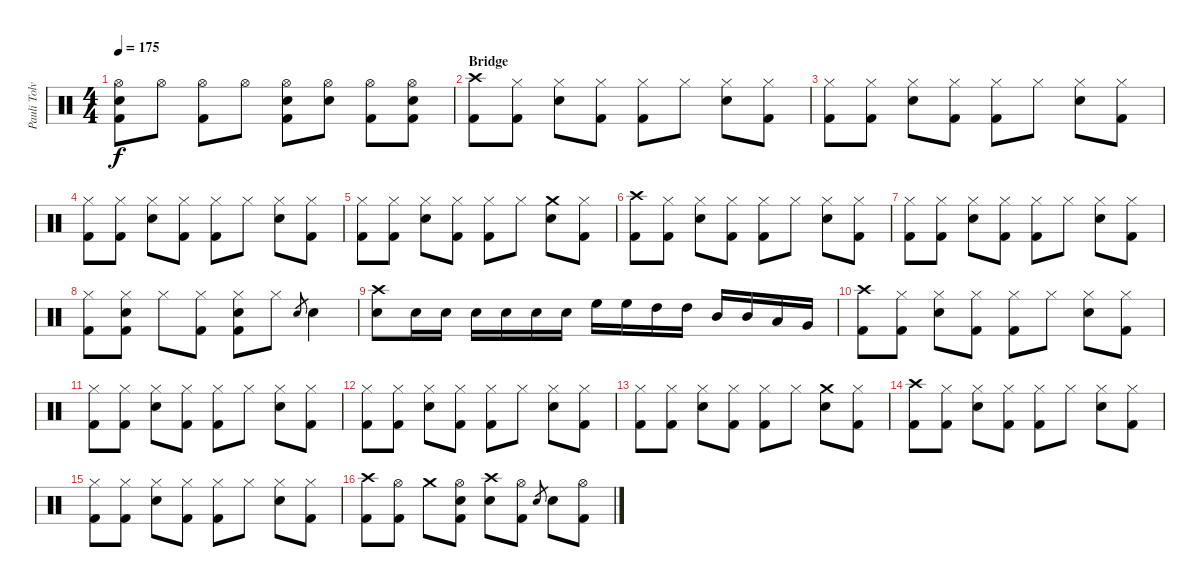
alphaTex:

\track ("Pauli Tolvanen-Drums" "Pauli Tolv") {instrument percussion}
\staff {score}
\articulation defaults
\ts (4 4)
\tempo 175
\clef neutral
\ks c
("Hi-Hat (open)" "Snare (hit) 2" "Kick (hit) 2").8{dy f} "Hi-Hat (open)".8 ("Hi-Hat (open)" "Kick (hit) 2").8 "Hi-Hat (open)".8 ("Hi-Hat (open)" "Snare (hit) 2" "Kick (hit) 2").8 ("Hi-Hat (open)" "Snare (hit) 2").8 ("Hi-Hat (open)" "Kick (hit) 2").8 ("Hi-Hat (open)" "Snare (hit) 2" "Kick (hit) 2").8 |
\section ("" "Bridge")
("Crash high (hit)" "Kick (hit) 2").8 ("Hi-Hat (closed)" "Kick (hit) 2").8 ("Hi-Hat (closed)" "Snare (hit) 2").8 ("Hi-Hat (closed)" "Kick (hit) 2").8 ("Hi-Hat (closed)" "Kick (hit) 2").8 "Hi-Hat (closed)".8 ("Hi-Hat (closed)" "Snare (hit) 2").8 ("Hi-Hat (closed)" "Kick (hit) 2").8 |
("Hi-Hat (closed)" "Kick (hit) 2").8 ("Hi-Hat (closed)" "Kick (hit) 2").8 ("Hi-Hat (closed)" "Snare (hit) 2").8 ("Hi-Hat (closed)" "Kick (hit) 2").8 ("Hi-Hat (closed)" "Kick (hit) 2").8 "Hi-Hat (closed)".8 ("Hi-Hat (closed)" "Snare (hit) 2").8 ("Hi-Hat (closed)" "Kick (hit) 2").8 |
("Hi-Hat (closed)" "Kick (hit) 2").8 ("Hi-Hat (closed)" "Kick (hit) 2").8 ("Hi-Hat (closed)" "Snare (hit) 2").8 ("Hi-Hat (closed)" "Kick (hit) 2").8 ("Hi-Hat (closed)" "Kick (hit) 2").8 "Hi-Hat (closed)".8 ("Hi-Hat (closed)" "Snare (hit) 2").8 ("Hi-Hat (closed)" "Kick (hit) 2").8 |
("Hi-Hat (closed)" "Kick (hit) 2").8 ("Hi-Hat (closed)" "Kick (hit) 2").8 ("Hi-Hat (closed)" "Snare (hit) 2").8 ("Hi-Hat (closed)" "Kick (hit) 2").8 ("Hi-Hat (closed)" "Kick (hit) 2").8 "Hi-Hat (closed)".8 ("Crash medium (hit)" "Snare (hit) 2").8 ("Hi-Hat (closed)" "Kick (hit) 2").8 |
("Crash high (hit)" "Kick (hit) 2").8 ("Hi-Hat (closed)" "Kick (hit) 2").8 ("Hi-Hat (closed)" "Snare (hit) 2").8 ("Hi-Hat (closed)" "Kick (hit) 2").8 ("Hi-Hat (closed)" "Kick (hit) 2").8 "Hi-Hat (closed)".8 ("Hi-Hat (closed)" "Snare (hit) 2").8 ("Hi-Hat (closed)" "Kick (hit) 2").8 |
("Hi-Hat (closed)" "Kick (hit) 2").8 ("Hi-Hat (closed)" "Kick (hit) 2").8 ("Hi-Hat (closed)" "Snare (hit) 2").8 ("Hi-Hat (closed)" "Kick (hit) 2").8 ("Hi-Hat (closed)" "Kick (hit) 2").8 "Hi-Hat (closed)".8 ("Hi-Hat (closed)" "Snare (hit) 2").8 ("Hi-Hat (closed)" "Kick (hit) 2").8 |
("Hi-Hat (closed)" "Kick (hit) 2").8 ("Hi-Hat (closed)" "Snare (hit) 2" "Kick (hit) 2").8 "Hi-Hat (closed)".8 ("Hi-Hat (closed)" "Kick (hit) 2").8 ("Hi-Hat (closed)" "Snare (hit) 2" "Kick (hit) 2").8 "Hi-Hat (closed)".8 "Snare (hit) 2".8{gr} "Snare (hit) 2".4 |
("Crash high (hit)" "Snare (hit) 2").8 "Snare (hit) 2".16 "Snare (hit) 2".16 "Snare (hit) 2".16 "Snare (hit) 2".16 "Snare (hit) 2".16 "Snare (hit) 2".16 "High Floor Tom (hit)".16 "High Floor Tom (hit)".16 "High Tom (hit)".16 "High Tom (hit)".16 "Mid Tom (hit)".16 "Mid Tom (hit)".16 "Low Tom (hit)".16 "Very Low Tom (hit)".16 |
("Crash high (hit)" "Kick (hit) 2").8 ("Hi-Hat (closed)" "Kick (hit) 2").8 ("Hi-Hat (closed)" "Snare (hit) 2").8 ("Hi-Hat (closed)" "Kick (hit) 2").8 ("Hi-Hat (closed)" "Kick (hit) 2").8 "Hi-Hat (closed)".8 ("Hi-Hat (closed)" "Snare (hit) 2").8 ("Hi-Hat (closed)" "Kick (hit) 2").8 |
("Hi-Hat (closed)" "Kick (hit) 2").8 ("Hi-Hat (closed)" "Kick (hit) 2").8 ("Hi-Hat (closed)" "Snare (hit) 2").8 ("Hi-Hat (closed)" "Kick (hit) 2").8 ("Hi-Hat (closed)" "Kick (hit) 2").8 "Hi-Hat (closed)".8 ("Hi-Hat (closed)" "Snare (hit) 2").8 ("Hi-Hat (closed)" "Kick (hit) 2").8 |
("Hi-Hat (closed)" "Kick (hit) 2").8 ("Hi-Hat (closed)" "Kick (hit) 2").8 ("Hi-Hat (closed)" "Snare (hit) 2").8 ("Hi-Hat (closed)" "Kick (hit) 2").8 ("Hi-Hat (closed)" "Kick (hit) 2").8 "Hi-Hat (closed)".8 ("Hi-Hat (closed)" "Snare (hit) 2").8 ("Hi-Hat (closed)" "Kick (hit) 2").8 |
("Hi-Hat (closed)" "Kick (hit) 2").8 ("Hi-Hat (closed)" "Kick (hit) 2").8 ("Hi-Hat (closed)" "Snare (hit) 2").8 ("Hi-Hat (closed)" "Kick (hit) 2").8 ("Hi-Hat (closed)" "Kick (hit) 2").8 "Hi-Hat (closed)".8 ("Crash medium (hit)" "Snare (hit) 2").8 ("Hi-Hat (closed)" "Kick (hit) 2").8 |
("Crash high (hit)" "Kick (hit) 2").8 ("Hi-Hat (closed)" "Kick (hit) 2").8 ("Hi-Hat (closed)" "Snare (hit) 2").8 ("Hi-Hat (closed)" "Kick (hit) 2").8 ("Hi-Hat (closed)" "Kick (hit) 2").8 "Hi-Hat (closed)".8 ("Hi-Hat (closed)" "Snare (hit) 2").8 ("Hi-Hat (closed)" "Kick (hit) 2").8 |
("Hi-Hat (closed)" "Kick (hit) 2").8 ("Hi-Hat (closed)" "Kick (hit) 2").8 ("Hi-Hat (closed)" "Snare (hit) 2").8 ("Hi-Hat (closed)" "Kick (hit) 2").8 ("Hi-Hat (closed)" "Kick (hit) 2").8 "Hi-Hat (closed)".8 ("Hi-Hat (closed)" "Snare (hit) 2").8 ("Hi-Hat (closed)" "Kick (hit) 2").8 |
("Crash high (hit)" "Kick (hit) 2").8 ("Hi-Hat (open)" "Kick (hit) 2").8 "Crash medium (hit)".8 ("Hi-Hat (open)" "Snare (hit) 2" "Kick (hit) 2").8 ("Crash high (hit)" "Snare (hit) 2").8 ("Hi-Hat (open)" "Kick (hit) 2").8 "Snare (hit) 2".8{gr} "Snare (hit) 2".8 ("Hi-Hat (open)" "Kick (hit) 2").8
